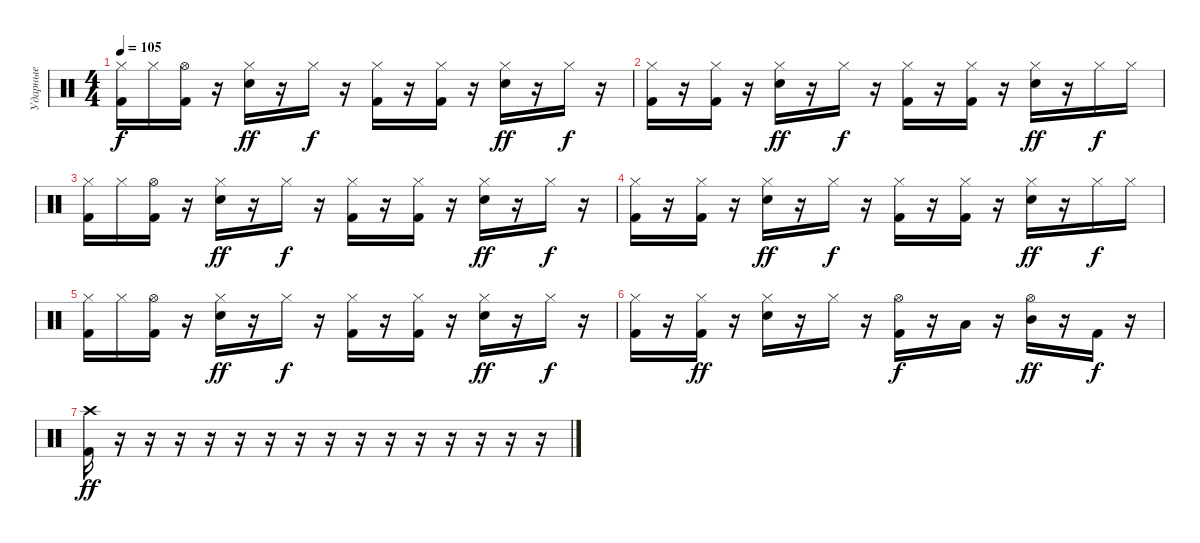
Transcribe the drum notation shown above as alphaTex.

\track ("Ударные" "Ударные") {instrument percussion}
\staff {score}
\articulation defaults
\ts (4 4)
\tempo 105
\clef neutral
\ks c
("Hi-Hat (closed)" "Kick (hit) 2").16{dy f} "Hi-Hat (closed)".16 ("Hi-Hat (open)" "Kick (hit) 2").16 r.16 ("Hi-Hat (closed)" "Electric Snare (hit)").16{dy ff} r.16 "Hi-Hat (closed)".16{dy f} r.16 ("Hi-Hat (closed)" "Kick (hit) 2").16 r.16 ("Hi-Hat (closed)" "Kick (hit) 2").16 r.16 ("Hi-Hat (closed)" "Electric Snare (hit)").16{dy ff} r.16 "Hi-Hat (closed)".16{dy f} r.16 |
("Hi-Hat (closed)" "Kick (hit) 2").16 r.16 ("Hi-Hat (closed)" "Kick (hit) 2").16 r.16 ("Hi-Hat (closed)" "Electric Snare (hit)").16{dy ff} r.16 "Hi-Hat (closed)".16{dy f} r.16 ("Hi-Hat (closed)" "Kick (hit) 2").16 r.16 ("Hi-Hat (closed)" "Kick (hit) 2").16 r.16 ("Hi-Hat (closed)" "Electric Snare (hit)").16{dy ff} r.16 "Hi-Hat (closed)".16{dy f} "Hi-Hat (closed)".16 |
("Hi-Hat (closed)" "Kick (hit) 2").16 "Hi-Hat (closed)".16 ("Hi-Hat (open)" "Kick (hit) 2").16 r.16 ("Hi-Hat (closed)" "Electric Snare (hit)").16{dy ff} r.16 "Hi-Hat (closed)".16{dy f} r.16 ("Hi-Hat (closed)" "Kick (hit) 2").16 r.16 ("Hi-Hat (closed)" "Kick (hit) 2").16 r.16 ("Hi-Hat (closed)" "Electric Snare (hit)").16{dy ff} r.16 "Hi-Hat (closed)".16{dy f} r.16 |
("Hi-Hat (closed)" "Kick (hit) 2").16 r.16 ("Hi-Hat (closed)" "Kick (hit) 2").16 r.16 ("Hi-Hat (closed)" "Electric Snare (hit)").16{dy ff} r.16 "Hi-Hat (closed)".16{dy f} r.16 ("Hi-Hat (closed)" "Kick (hit) 2").16 r.16 ("Hi-Hat (closed)" "Kick (hit) 2").16 r.16 ("Hi-Hat (closed)" "Electric Snare (hit)").16{dy ff} r.16 "Hi-Hat (closed)".16{dy f} "Hi-Hat (closed)".16 |
("Hi-Hat (closed)" "Kick (hit) 2").16 "Hi-Hat (closed)".16 ("Hi-Hat (open)" "Kick (hit) 2").16 r.16 ("Hi-Hat (closed)" "Electric Snare (hit)").16{dy ff} r.16 "Hi-Hat (closed)".16{dy f} r.16 ("Hi-Hat (closed)" "Kick (hit) 2").16 r.16 ("Hi-Hat (closed)" "Kick (hit) 2").16 r.16 ("Hi-Hat (closed)" "Electric Snare (hit)").16{dy ff} r.16 "Hi-Hat (closed)".16{dy f} r.16 |
("Hi-Hat (closed)" "Kick (hit) 2").16 r.16 ("Hi-Hat (closed)" "Kick (hit) 2").16{dy ff} r.16 ("Hi-Hat (closed)" "Electric Snare (hit)").16 r.16 "Hi-Hat (closed)".16 r.16 ("Hi-Hat (open)" "Kick (hit) 2").16{dy f} r.16 "Low Tom (hit)".16 r.16 ("Mid Tom (hit)" "Hi-Hat (open)").16{dy ff} r.16 "Kick (hit) 2".16{dy f} r.16 |
("Crash high (hit)" "Kick (hit) 2").16{dy ff} r.16 r.16 r.16 r.16 r.16 r.16 r.16 r.16 r.16 r.16 r.16 r.16 r.16 r.16 r.16
